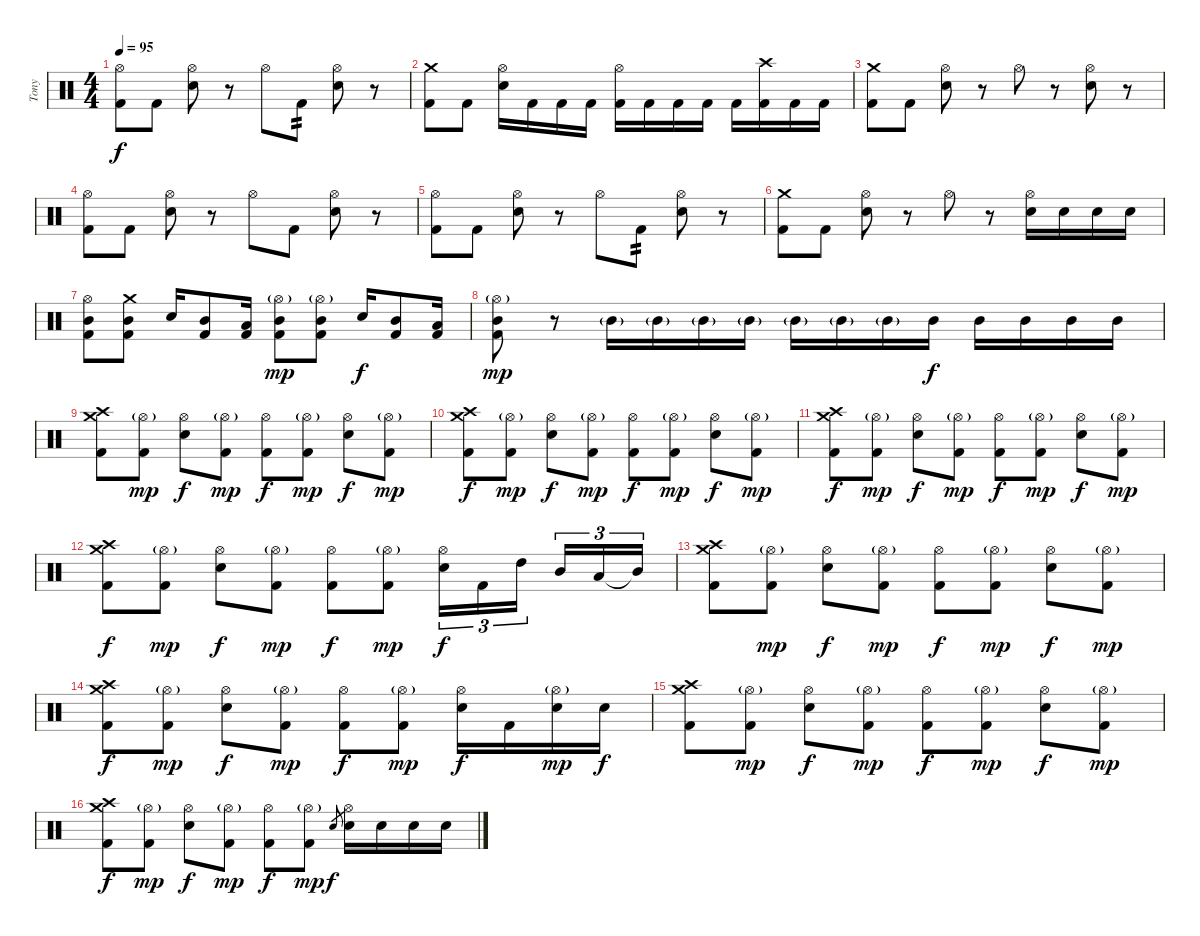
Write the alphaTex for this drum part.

\track ("Tony" "Tony") {instrument percussion}
\staff {score}
\articulation defaults
\ts (4 4)
\tempo 95
\clef neutral
\ks c
("Hi-Hat (open)" "Kick (hit) 2").8{dy f} "Kick (hit) 2".8 ("Hi-Hat (open)" "Electric Snare (hit)").8 r.8 "Hi-Hat (open)".8 "Kick (hit) 2".8{tp 2} ("Hi-Hat (open)" "Electric Snare (hit)").8 r.8 |
("Crash medium (hit)" "Kick (hit) 2").8 "Kick (hit) 2".8 ("Hi-Hat (open)" "Electric Snare (hit)").16 "Kick (hit) 2".16 "Kick (hit) 2".16 "Kick (hit) 2".16 ("Hi-Hat (open)" "Kick (hit) 2").16 "Kick (hit) 2".16 "Kick (hit) 2".16 "Kick (hit) 2".16 "Kick (hit) 2".16 ("Crash high (hit)" "Kick (hit) 2").16 "Kick (hit) 2".16 "Kick (hit) 2".16 |
("Crash medium (hit)" "Kick (hit) 2").8 "Kick (hit) 2".8 ("Hi-Hat (open)" "Electric Snare (hit)").8 r.8 "Hi-Hat (open)".8 r.8 ("Hi-Hat (open)" "Electric Snare (hit)").8 r.8 |
("Hi-Hat (open)" "Kick (hit) 2").8 "Kick (hit) 2".8 ("Hi-Hat (open)" "Electric Snare (hit)").8 r.8 "Hi-Hat (open)".8 "Kick (hit) 2".8 ("Hi-Hat (open)" "Electric Snare (hit)").8 r.8 |
("Hi-Hat (open)" "Kick (hit) 2").8 "Kick (hit) 2".8 ("Hi-Hat (open)" "Electric Snare (hit)").8 r.8 "Hi-Hat (open)".8 "Kick (hit) 2".8{tp 2} ("Hi-Hat (open)" "Electric Snare (hit)").8 r.8 |
("Crash medium (hit)" "Kick (hit) 2").8 "Kick (hit) 2".8 ("Hi-Hat (open)" "Electric Snare (hit)").8 r.8 "Hi-Hat (open)".8 r.8 ("Hi-Hat (open)" "Electric Snare (hit)").16 "Electric Snare (hit)".16 "Electric Snare (hit)".16 "Electric Snare (hit)".16 |
("Hi-Hat (open)" "Mid Tom (hit)" "Kick (hit) 2").8 ("Crash medium (hit)" "Mid Tom (hit)" "Kick (hit) 2").8 "Electric Snare (hit)".16 ("Mid Tom (hit)" "Kick (hit) 2").8 ("Low Tom (hit)" "Kick (hit) 2").16 ("Hi-Hat (open)"{g} "Mid Tom (hit)" "Kick (hit) 2").8{dy mp} ("Hi-Hat (open)"{g} "Mid Tom (hit)" "Kick (hit) 2").8 "Electric Snare (hit)".16{dy f} ("Mid Tom (hit)" "Kick (hit) 2").8 ("Low Tom (hit)" "Kick (hit) 2").16 |
("Hi-Hat (open)"{g} "Mid Tom (hit)" "Kick (hit) 2").8{dy mp} r.8 "Mid Tom (hit)"{g}.16 "Mid Tom (hit)"{g}.16 "Mid Tom (hit)"{g}.16 "Mid Tom (hit)"{g}.16 "Mid Tom (hit)"{g}.16 "Mid Tom (hit)"{g}.16 "Mid Tom (hit)"{g}.16 "Mid Tom (hit)".16{dy f} "Mid Tom (hit)".16 "Mid Tom (hit)".16 "Mid Tom (hit)".16 "Mid Tom (hit)".16 |
("Crash high (hit)" "Crash medium (hit)" "Kick (hit) 2").8 ("Hi-Hat (open)"{g} "Kick (hit) 2").8{dy mp} ("Hi-Hat (open)" "Electric Snare (hit)").8{dy f} ("Hi-Hat (open)"{g} "Kick (hit) 2").8{dy mp} ("Hi-Hat (open)" "Kick (hit) 2").8{dy f} ("Hi-Hat (open)"{g} "Kick (hit) 2").8{dy mp} ("Hi-Hat (open)" "Electric Snare (hit)").8{dy f} ("Hi-Hat (open)"{g} "Kick (hit) 2").8{dy mp} |
("Crash high (hit)" "Crash medium (hit)" "Kick (hit) 2").8{dy f} ("Hi-Hat (open)"{g} "Kick (hit) 2").8{dy mp} ("Hi-Hat (open)" "Electric Snare (hit)").8{dy f} ("Hi-Hat (open)"{g} "Kick (hit) 2").8{dy mp} ("Hi-Hat (open)" "Kick (hit) 2").8{dy f} ("Hi-Hat (open)"{g} "Kick (hit) 2").8{dy mp} ("Hi-Hat (open)" "Electric Snare (hit)").8{dy f} ("Hi-Hat (open)"{g} "Kick (hit) 2").8{dy mp} |
("Crash high (hit)" "Crash medium (hit)" "Kick (hit) 2").8{dy f} ("Hi-Hat (open)"{g} "Kick (hit) 2").8{dy mp} ("Hi-Hat (open)" "Electric Snare (hit)").8{dy f} ("Hi-Hat (open)"{g} "Kick (hit) 2").8{dy mp} ("Hi-Hat (open)" "Kick (hit) 2").8{dy f} ("Hi-Hat (open)"{g} "Kick (hit) 2").8{dy mp} ("Hi-Hat (open)" "Electric Snare (hit)").8{dy f} ("Hi-Hat (open)"{g} "Kick (hit) 2").8{dy mp} |
("Crash high (hit)" "Crash medium (hit)" "Kick (hit) 2").8{dy f} ("Hi-Hat (open)"{g} "Kick (hit) 2").8{dy mp} ("Hi-Hat (open)" "Electric Snare (hit)").8{dy f} ("Hi-Hat (open)"{g} "Kick (hit) 2").8{dy mp} ("Hi-Hat (open)" "Kick (hit) 2").8{dy f} ("Hi-Hat (open)"{g} "Kick (hit) 2").8{dy mp} ("Hi-Hat (open)" "Electric Snare (hit)").16{tu (3 2) dy f} "Kick (hit) 2".16{tu (3 2)} "High Tom (hit)".16{tu (3 2) beam splitsecondary} "Mid Tom (hit)".16{tu (3 2)} "Low Tom (hit)".16{tu (3 2)} "Mid Tom (hit)"{t}.16{tu (3 2)} |
("Crash high (hit)" "Crash medium (hit)" "Kick (hit) 2").8 ("Hi-Hat (open)"{g} "Kick (hit) 2").8{dy mp} ("Hi-Hat (open)" "Electric Snare (hit)").8{dy f} ("Hi-Hat (open)"{g} "Kick (hit) 2").8{dy mp} ("Hi-Hat (open)" "Kick (hit) 2").8{dy f} ("Hi-Hat (open)"{g} "Kick (hit) 2").8{dy mp} ("Hi-Hat (open)" "Electric Snare (hit)").8{dy f} ("Hi-Hat (open)"{g} "Kick (hit) 2").8{dy mp} |
("Crash high (hit)" "Crash medium (hit)" "Kick (hit) 2").8{dy f} ("Hi-Hat (open)"{g} "Kick (hit) 2").8{dy mp} ("Hi-Hat (open)" "Electric Snare (hit)").8{dy f} ("Hi-Hat (open)"{g} "Kick (hit) 2").8{dy mp} ("Hi-Hat (open)" "Kick (hit) 2").8{dy f} ("Hi-Hat (open)"{g} "Kick (hit) 2").8{dy mp} ("Hi-Hat (open)" "Electric Snare (hit)").16{dy f} "Kick (hit) 2".16 ("Hi-Hat (open)"{g} "Electric Snare (hit)").16{dy mp} "Electric Snare (hit)".16{dy f} |
("Crash high (hit)" "Crash medium (hit)" "Kick (hit) 2").8 ("Hi-Hat (open)"{g} "Kick (hit) 2").8{dy mp} ("Hi-Hat (open)" "Electric Snare (hit)").8{dy f} ("Hi-Hat (open)"{g} "Kick (hit) 2").8{dy mp} ("Hi-Hat (open)" "Kick (hit) 2").8{dy f} ("Hi-Hat (open)"{g} "Kick (hit) 2").8{dy mp} ("Hi-Hat (open)" "Electric Snare (hit)").8{dy f} ("Hi-Hat (open)"{g} "Kick (hit) 2").8{dy mp} |
("Crash high (hit)" "Crash medium (hit)" "Kick (hit) 2").8{dy f} ("Hi-Hat (open)"{g} "Kick (hit) 2").8{dy mp} ("Hi-Hat (open)" "Electric Snare (hit)").8{dy f} ("Hi-Hat (open)"{g} "Kick (hit) 2").8{dy mp} ("Hi-Hat (open)" "Kick (hit) 2").8{dy f} ("Hi-Hat (open)"{g} "Kick (hit) 2").8{dy mp} "Electric Snare (hit)".8{gr dy f} ("Hi-Hat (open)" "Electric Snare (hit)").16 "Electric Snare (hit)".16 "Electric Snare (hit)".16 "Electric Snare (hit)".16
